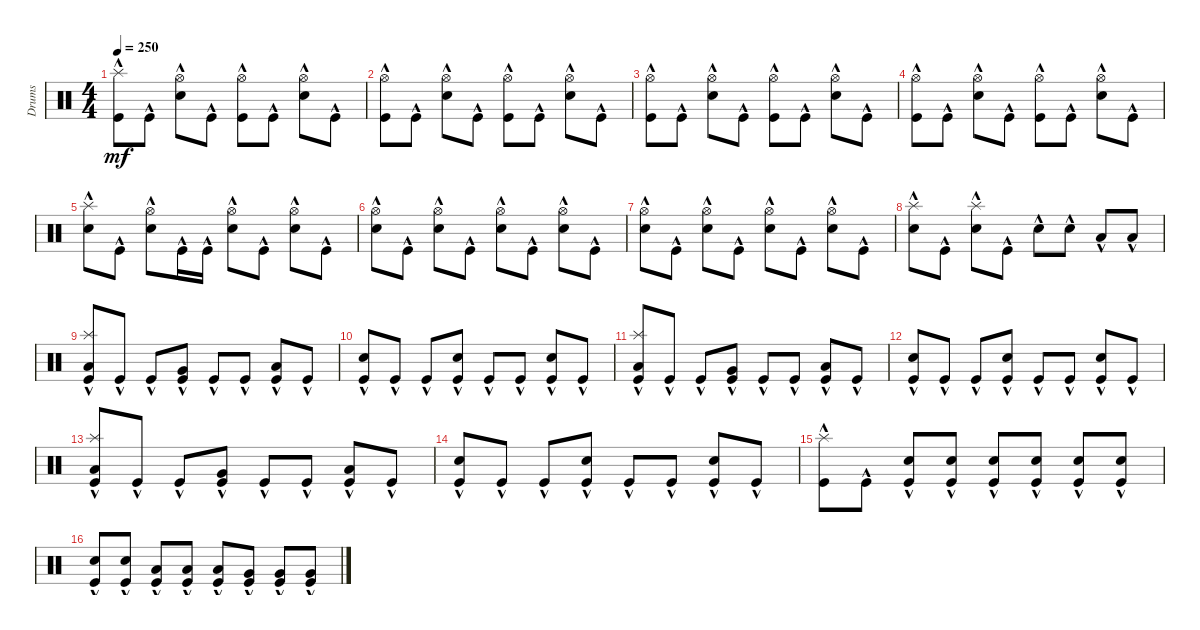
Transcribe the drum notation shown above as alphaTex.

\track ("Drums" "Drums") {instrument percussion}
\staff {score}
\articulation defaults
\ts (4 4)
\tempo 250
\clef neutral
\ks c
("Kick (hit)"{hac} "Splash (hit)"{hac}).8{dy mf} "Kick (hit)"{hac}.8 ("Snare (hit) 2"{hac} "Hi-Hat (open)"{hac}).8 "Kick (hit)"{hac}.8 ("Kick (hit)"{hac} "Hi-Hat (open)"{hac}).8 "Kick (hit)"{hac}.8 ("Snare (hit) 2"{hac} "Hi-Hat (open)"{hac}).8 "Kick (hit)"{hac}.8 |
("Kick (hit)"{hac} "Hi-Hat (open)"{hac}).8 "Kick (hit)"{hac}.8 ("Snare (hit) 2"{hac} "Hi-Hat (open)"{hac}).8 "Kick (hit)"{hac}.8 ("Kick (hit)"{hac} "Hi-Hat (open)"{hac}).8 "Kick (hit)"{hac}.8 ("Snare (hit) 2"{hac} "Hi-Hat (open)"{hac}).8 "Kick (hit)"{hac}.8 |
("Kick (hit)"{hac} "Hi-Hat (open)"{hac}).8 "Kick (hit)"{hac}.8 ("Snare (hit) 2"{hac} "Hi-Hat (open)"{hac}).8 "Kick (hit)"{hac}.8 ("Kick (hit)"{hac} "Hi-Hat (open)"{hac}).8 "Kick (hit)"{hac}.8 ("Snare (hit) 2"{hac} "Hi-Hat (open)"{hac}).8 "Kick (hit)"{hac}.8 |
("Kick (hit)"{hac} "Hi-Hat (open)"{hac}).8 "Kick (hit)"{hac}.8 ("Snare (hit) 2"{hac} "Hi-Hat (open)"{hac}).8 "Kick (hit)"{hac}.8 ("Kick (hit)"{hac} "Hi-Hat (open)"{hac}).8 "Kick (hit)"{hac}.8 ("Snare (hit) 2"{hac} "Hi-Hat (open)"{hac}).8 "Kick (hit)"{hac}.8 |
("Snare (hit) 2"{hac} "Splash (hit)"{hac}).8 "Kick (hit)"{hac}.8 ("Snare (hit) 2"{hac} "Hi-Hat (open)"{hac}).8 "Kick (hit)"{hac}.16 "Kick (hit)"{hac}.16 ("Snare (hit) 2"{hac} "Hi-Hat (open)"{hac}).8 "Kick (hit)"{hac}.8 ("Snare (hit) 2"{hac} "Hi-Hat (open)"{hac}).8 "Kick (hit)"{hac}.8 |
("Snare (hit) 2"{hac} "Hi-Hat (open)"{hac}).8 "Kick (hit)"{hac}.8 ("Snare (hit) 2"{hac} "Hi-Hat (open)"{hac}).8 "Kick (hit)"{hac}.8 ("Snare (hit) 2"{hac} "Hi-Hat (open)"{hac}).8 "Kick (hit)"{hac}.8 ("Snare (hit) 2"{hac} "Hi-Hat (open)"{hac}).8 "Kick (hit)"{hac}.8 |
("Snare (hit) 2"{hac} "Hi-Hat (open)"{hac}).8 "Kick (hit)"{hac}.8 ("Snare (hit) 2"{hac} "Hi-Hat (open)"{hac}).8 "Kick (hit)"{hac}.8 ("Snare (hit) 2"{hac} "Hi-Hat (open)"{hac}).8 "Kick (hit)"{hac}.8 ("Snare (hit) 2"{hac} "Hi-Hat (open)"{hac}).8 "Kick (hit)"{hac}.8 |
("Snare (hit) 2"{hac} "Splash (hit)"{hac}).8 "Kick (hit)"{hac}.8 ("Snare (hit) 2"{hac} "Splash (hit)"{hac}).8 "Kick (hit)"{hac}.8 "Snare (hit) 2"{hac}.8 "Snare (hit) 2"{hac}.8 "Low Tom (hit)"{hac}.8 "Low Tom (hit)"{hac}.8 |
("Kick (hit)"{hac} "Splash (hit)"{hac} "Low Tom (hit)"{hac}).8 "Kick (hit)"{hac}.8 "Kick (hit)"{hac}.8 ("Kick (hit)"{hac} "Very Low Tom (hit)"{hac}).8 "Kick (hit)"{hac}.8 "Kick (hit)"{hac}.8 ("Kick (hit)"{hac} "Low Floor Tom (hit)"{hac}).8 "Kick (hit)"{hac}.8 |
("Kick (hit)"{hac} "Snare (hit) 2"{hac}).8 "Kick (hit)"{hac}.8 "Kick (hit)"{hac}.8 ("Kick (hit)"{hac} "Snare (hit) 2"{hac}).8 "Kick (hit)"{hac}.8 "Kick (hit)"{hac}.8 ("Kick (hit)"{hac} "Snare (hit) 2"{hac}).8 "Kick (hit)"{hac}.8 |
("Kick (hit)"{hac} "Low Tom (hit)"{hac} "Splash (hit)"{hac}).8 "Kick (hit)"{hac}.8 "Kick (hit)"{hac}.8 ("Kick (hit)"{hac} "Very Low Tom (hit)"{hac}).8 "Kick (hit)"{hac}.8 "Kick (hit)"{hac}.8 ("Kick (hit)"{hac} "Low Floor Tom (hit)"{hac}).8 "Kick (hit)"{hac}.8 |
("Kick (hit)"{hac} "Snare (hit) 2"{hac}).8 "Kick (hit)"{hac}.8 "Kick (hit)"{hac}.8 ("Kick (hit)"{hac} "Snare (hit) 2"{hac}).8 "Kick (hit)"{hac}.8 "Kick (hit)"{hac}.8 ("Kick (hit)"{hac} "Snare (hit) 2"{hac}).8 "Kick (hit)"{hac}.8 |
("Kick (hit)"{hac} "Splash (hit)"{hac} "Low Tom (hit)"{hac}).8 "Kick (hit)"{hac}.8 "Kick (hit)"{hac}.8 ("Kick (hit)"{hac} "Very Low Tom (hit)"{hac}).8 "Kick (hit)"{hac}.8 "Kick (hit)"{hac}.8 ("Kick (hit)"{hac} "Low Floor Tom (hit)"{hac}).8 "Kick (hit)"{hac}.8 |
("Kick (hit)"{hac} "Snare (hit) 2"{hac}).8 "Kick (hit)"{hac}.8 "Kick (hit)"{hac}.8 ("Kick (hit)"{hac} "Snare (hit) 2"{hac}).8 "Kick (hit)"{hac}.8 "Kick (hit)"{hac}.8 ("Kick (hit)"{hac} "Snare (hit) 2"{hac}).8 "Kick (hit)"{hac}.8 |
("Kick (hit)"{hac} "Splash (hit)"{hac}).8 "Kick (hit)"{hac}.8 ("Kick (hit)"{hac} "Snare (hit) 2"{hac}).8 ("Kick (hit)"{hac} "Snare (hit) 2"{hac}).8 ("Kick (hit)"{hac} "Snare (hit) 2"{hac}).8 ("Kick (hit)"{hac} "Snare (hit) 2"{hac}).8 ("Kick (hit)"{hac} "Snare (hit) 2"{hac}).8 ("Kick (hit)"{hac} "Snare (hit) 2"{hac}).8 |
("Kick (hit)"{hac} "Snare (hit) 2"{hac}).8 ("Kick (hit)"{hac} "Snare (hit) 2"{hac}).8 ("Kick (hit)"{hac} "Low Tom (hit)"{hac}).8 ("Kick (hit)"{hac} "Low Tom (hit)"{hac}).8 ("Kick (hit)"{hac} "Low Tom (hit)"{hac}).8 ("Kick (hit)"{hac} "Very Low Tom (hit)"{hac}).8 ("Kick (hit)"{hac} "Very Low Tom (hit)"{hac}).8 ("Kick (hit)"{hac} "Very Low Tom (hit)"{hac}).8
